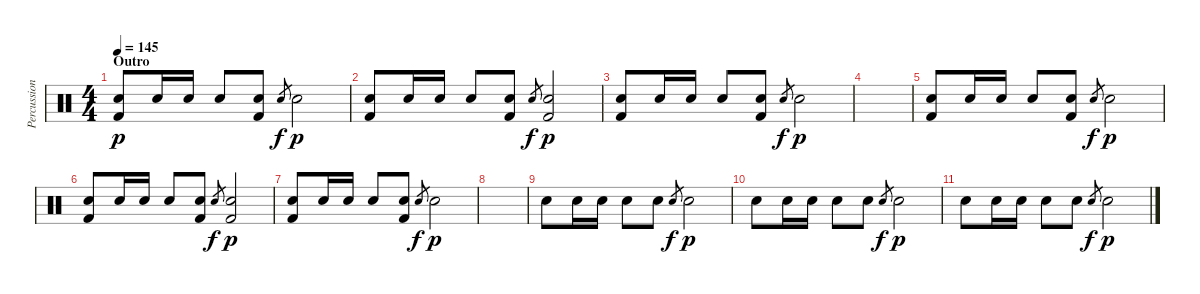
\track ("Percussion" "Percussion") {instrument percussion}
\staff {score}
\articulation defaults
\ts (4 4)
\section ("" "Outro")
\tempo 145
\clef neutral
\ks c
("Electric Snare (hit)" "Kick (hit) 2").8{dy p} "Electric Snare (hit)".16 "Electric Snare (hit)".16 "Electric Snare (hit)".8 ("Electric Snare (hit)" "Kick (hit) 2").8 "Electric Snare (hit)".8{gr dy f} "Electric Snare (hit)".2{dy p} |
("Electric Snare (hit)" "Kick (hit) 2").8 "Electric Snare (hit)".16 "Electric Snare (hit)".16 "Electric Snare (hit)".8 ("Electric Snare (hit)" "Kick (hit) 2").8 "Electric Snare (hit)".8{gr dy f} ("Electric Snare (hit)" "Kick (hit) 2").2{dy p} |
("Electric Snare (hit)" "Kick (hit) 2").8 "Electric Snare (hit)".16 "Electric Snare (hit)".16 "Electric Snare (hit)".8 ("Electric Snare (hit)" "Kick (hit) 2").8 "Electric Snare (hit)".8{gr dy f} "Electric Snare (hit)".2{dy p} |
|
("Electric Snare (hit)" "Kick (hit) 2").8 "Electric Snare (hit)".16 "Electric Snare (hit)".16 "Electric Snare (hit)".8 ("Electric Snare (hit)" "Kick (hit) 2").8 "Electric Snare (hit)".8{gr dy f} "Electric Snare (hit)".2{dy p} |
("Electric Snare (hit)" "Kick (hit) 2").8 "Electric Snare (hit)".16 "Electric Snare (hit)".16 "Electric Snare (hit)".8 ("Electric Snare (hit)" "Kick (hit) 2").8 "Electric Snare (hit)".8{gr dy f} ("Electric Snare (hit)" "Kick (hit) 2").2{dy p} |
("Electric Snare (hit)" "Kick (hit) 2").8 "Electric Snare (hit)".16 "Electric Snare (hit)".16 "Electric Snare (hit)".8 ("Electric Snare (hit)" "Kick (hit) 2").8 "Electric Snare (hit)".8{gr dy f} "Electric Snare (hit)".2{dy p} |
|
"Electric Snare (hit)".8 "Electric Snare (hit)".16 "Electric Snare (hit)".16 "Electric Snare (hit)".8 "Electric Snare (hit)".8 "Electric Snare (hit)".8{gr dy f} "Electric Snare (hit)".2{dy p} |
"Electric Snare (hit)".8 "Electric Snare (hit)".16 "Electric Snare (hit)".16 "Electric Snare (hit)".8 "Electric Snare (hit)".8 "Electric Snare (hit)".8{gr dy f} "Electric Snare (hit)".2{dy p} |
"Electric Snare (hit)".8 "Electric Snare (hit)".16 "Electric Snare (hit)".16 "Electric Snare (hit)".8 "Electric Snare (hit)".8 "Electric Snare (hit)".8{gr dy f} "Electric Snare (hit)".2{dy p}
